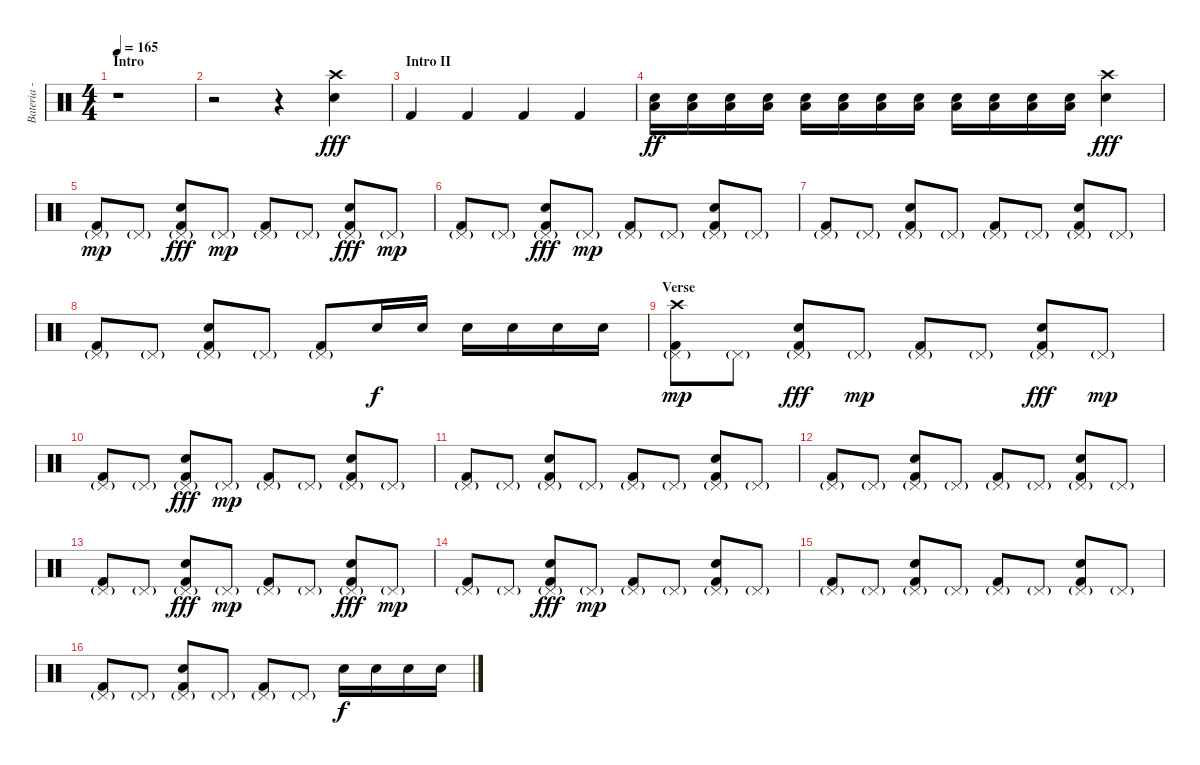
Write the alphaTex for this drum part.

\track ("Bateria - Larzon" "Bateria - ") {instrument percussion}
\staff {score}
\articulation defaults
\ts (4 4)
\section ("" "Intro")
\tempo 165
\clef neutral
\ks c
r.1{dy fff} |
r.2 r.4 ("Crash high (hit)" "Electric Snare (hit)").4 |
\section ("" "Intro II")
"Kick (hit) 2".4 "Kick (hit) 2".4 "Kick (hit) 2".4 "Kick (hit) 2".4 |
("Electric Snare (hit)" "Low Tom (hit)").16{dy ff} ("Electric Snare (hit)" "Low Tom (hit)").16 ("Electric Snare (hit)" "Low Tom (hit)").16 ("Electric Snare (hit)" "Low Tom (hit)").16 ("Electric Snare (hit)" "Low Tom (hit)").16 ("Electric Snare (hit)" "Low Tom (hit)").16 ("Electric Snare (hit)" "Low Tom (hit)").16 ("Electric Snare (hit)" "Low Tom (hit)").16 ("Electric Snare (hit)" "Low Tom (hit)").16 ("Electric Snare (hit)" "Low Tom (hit)").16 ("Electric Snare (hit)" "Low Tom (hit)").16 ("Electric Snare (hit)" "Low Tom (hit)").16 ("Crash high (hit)" "Electric Snare (hit)").4{dy fff} |
("Kick (hit) 2" "Pedal Hi-Hat (hit)"{g}).8{dy mp} "Pedal Hi-Hat (hit)"{g}.8 ("Pedal Hi-Hat (hit)"{g} "Electric Snare (hit)" "Kick (hit) 2").8{dy fff} "Pedal Hi-Hat (hit)"{g}.8{dy mp} ("Kick (hit) 2" "Pedal Hi-Hat (hit)"{g}).8 "Pedal Hi-Hat (hit)"{g}.8 ("Pedal Hi-Hat (hit)"{g} "Electric Snare (hit)" "Kick (hit) 2").8{dy fff} "Pedal Hi-Hat (hit)"{g}.8{dy mp} |
("Kick (hit) 2" "Pedal Hi-Hat (hit)"{g}).8 "Pedal Hi-Hat (hit)"{g}.8 ("Pedal Hi-Hat (hit)"{g} "Electric Snare (hit)" "Kick (hit) 2").8{dy fff} "Pedal Hi-Hat (hit)"{g}.8{dy mp} ("Kick (hit) 2" "Pedal Hi-Hat (hit)"{g}).8 "Pedal Hi-Hat (hit)"{g}.8 ("Pedal Hi-Hat (hit)"{g} "Electric Snare (hit)" "Kick (hit) 2").8 "Pedal Hi-Hat (hit)"{g}.8 |
("Kick (hit) 2" "Pedal Hi-Hat (hit)"{g}).8 "Pedal Hi-Hat (hit)"{g}.8 ("Pedal Hi-Hat (hit)"{g} "Electric Snare (hit)" "Kick (hit) 2").8 "Pedal Hi-Hat (hit)"{g}.8 ("Kick (hit) 2" "Pedal Hi-Hat (hit)"{g}).8 "Pedal Hi-Hat (hit)"{g}.8 ("Pedal Hi-Hat (hit)"{g} "Electric Snare (hit)" "Kick (hit) 2").8 "Pedal Hi-Hat (hit)"{g}.8 |
("Kick (hit) 2" "Pedal Hi-Hat (hit)"{g}).8 "Pedal Hi-Hat (hit)"{g}.8 ("Pedal Hi-Hat (hit)"{g} "Electric Snare (hit)" "Kick (hit) 2").8 "Pedal Hi-Hat (hit)"{g}.8 ("Kick (hit) 2" "Pedal Hi-Hat (hit)"{g}).8 "Snare (hit) 2".16{dy f} "Snare (hit) 2".16 "Snare (hit) 2".16 "Snare (hit) 2".16 "Snare (hit) 2".16 "Snare (hit) 2".16 |
\section ("" "Verse")
("Kick (hit) 2" "Pedal Hi-Hat (hit)"{g} "Crash high (hit)").8{dy mp} "Pedal Hi-Hat (hit)"{g}.8 ("Pedal Hi-Hat (hit)"{g} "Electric Snare (hit)" "Kick (hit) 2").8{dy fff} "Pedal Hi-Hat (hit)"{g}.8{dy mp} ("Kick (hit) 2" "Pedal Hi-Hat (hit)"{g}).8 "Pedal Hi-Hat (hit)"{g}.8 ("Pedal Hi-Hat (hit)"{g} "Electric Snare (hit)" "Kick (hit) 2").8{dy fff} "Pedal Hi-Hat (hit)"{g}.8{dy mp} |
("Kick (hit) 2" "Pedal Hi-Hat (hit)"{g}).8 "Pedal Hi-Hat (hit)"{g}.8 ("Pedal Hi-Hat (hit)"{g} "Electric Snare (hit)" "Kick (hit) 2").8{dy fff} "Pedal Hi-Hat (hit)"{g}.8{dy mp} ("Kick (hit) 2" "Pedal Hi-Hat (hit)"{g}).8 "Pedal Hi-Hat (hit)"{g}.8 ("Pedal Hi-Hat (hit)"{g} "Electric Snare (hit)" "Kick (hit) 2").8 "Pedal Hi-Hat (hit)"{g}.8 |
("Kick (hit) 2" "Pedal Hi-Hat (hit)"{g}).8 "Pedal Hi-Hat (hit)"{g}.8 ("Pedal Hi-Hat (hit)"{g} "Electric Snare (hit)" "Kick (hit) 2").8 "Pedal Hi-Hat (hit)"{g}.8 ("Kick (hit) 2" "Pedal Hi-Hat (hit)"{g}).8 "Pedal Hi-Hat (hit)"{g}.8 ("Pedal Hi-Hat (hit)"{g} "Electric Snare (hit)" "Kick (hit) 2").8 "Pedal Hi-Hat (hit)"{g}.8 |
("Kick (hit) 2" "Pedal Hi-Hat (hit)"{g}).8 "Pedal Hi-Hat (hit)"{g}.8 ("Pedal Hi-Hat (hit)"{g} "Electric Snare (hit)" "Kick (hit) 2").8 "Pedal Hi-Hat (hit)"{g}.8 ("Kick (hit) 2" "Pedal Hi-Hat (hit)"{g}).8 "Pedal Hi-Hat (hit)"{g}.8 ("Pedal Hi-Hat (hit)"{g} "Electric Snare (hit)" "Kick (hit) 2").8 "Pedal Hi-Hat (hit)"{g}.8 |
("Kick (hit) 2" "Pedal Hi-Hat (hit)"{g}).8 "Pedal Hi-Hat (hit)"{g}.8 ("Pedal Hi-Hat (hit)"{g} "Electric Snare (hit)" "Kick (hit) 2").8{dy fff} "Pedal Hi-Hat (hit)"{g}.8{dy mp} ("Kick (hit) 2" "Pedal Hi-Hat (hit)"{g}).8 "Pedal Hi-Hat (hit)"{g}.8 ("Pedal Hi-Hat (hit)"{g} "Electric Snare (hit)" "Kick (hit) 2").8{dy fff} "Pedal Hi-Hat (hit)"{g}.8{dy mp} |
("Kick (hit) 2" "Pedal Hi-Hat (hit)"{g}).8 "Pedal Hi-Hat (hit)"{g}.8 ("Pedal Hi-Hat (hit)"{g} "Electric Snare (hit)" "Kick (hit) 2").8{dy fff} "Pedal Hi-Hat (hit)"{g}.8{dy mp} ("Kick (hit) 2" "Pedal Hi-Hat (hit)"{g}).8 "Pedal Hi-Hat (hit)"{g}.8 ("Pedal Hi-Hat (hit)"{g} "Electric Snare (hit)" "Kick (hit) 2").8 "Pedal Hi-Hat (hit)"{g}.8 |
("Kick (hit) 2" "Pedal Hi-Hat (hit)"{g}).8 "Pedal Hi-Hat (hit)"{g}.8 ("Pedal Hi-Hat (hit)"{g} "Electric Snare (hit)" "Kick (hit) 2").8 "Pedal Hi-Hat (hit)"{g}.8 ("Kick (hit) 2" "Pedal Hi-Hat (hit)"{g}).8 "Pedal Hi-Hat (hit)"{g}.8 ("Pedal Hi-Hat (hit)"{g} "Electric Snare (hit)" "Kick (hit) 2").8 "Pedal Hi-Hat (hit)"{g}.8 |
("Kick (hit) 2" "Pedal Hi-Hat (hit)"{g}).8 "Pedal Hi-Hat (hit)"{g}.8 ("Pedal Hi-Hat (hit)"{g} "Electric Snare (hit)" "Kick (hit) 2").8 "Pedal Hi-Hat (hit)"{g}.8 ("Kick (hit) 2" "Pedal Hi-Hat (hit)"{g}).8 "Pedal Hi-Hat (hit)"{g}.8 "Snare (hit) 2".16{dy f} "Snare (hit) 2".16 "Snare (hit) 2".16 "Snare (hit) 2".16
